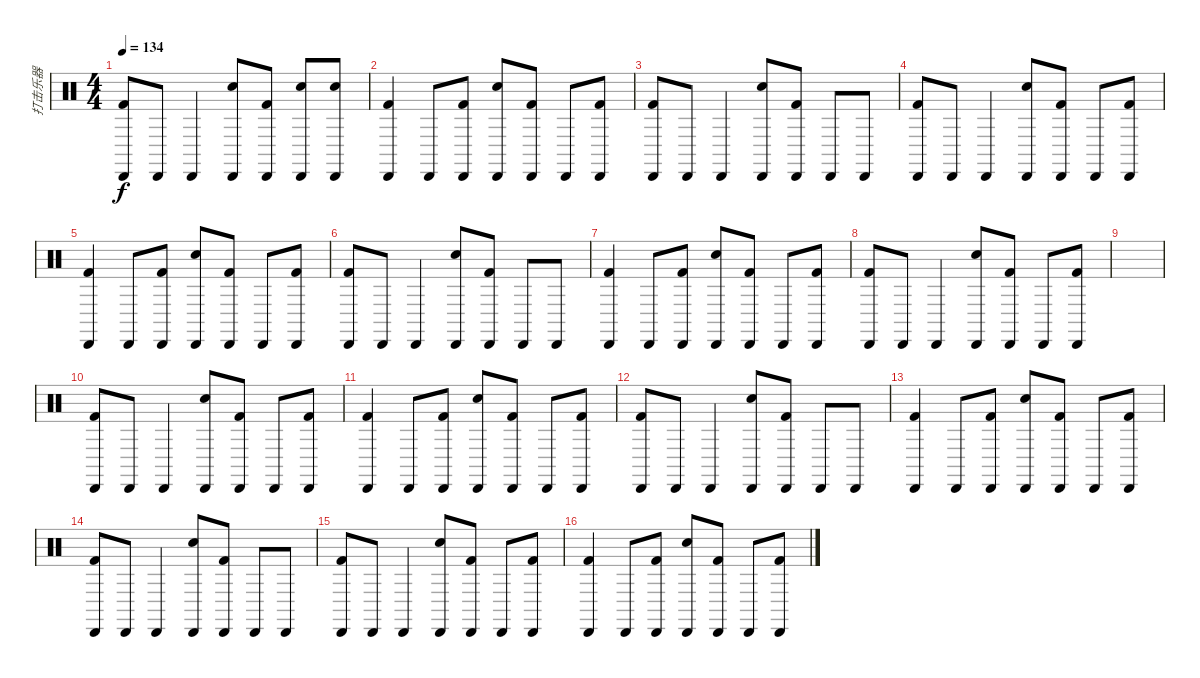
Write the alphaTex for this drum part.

\track ("打击乐器" "打击乐器") {instrument percussion}
\staff {score}
\articulation defaults
\ts (4 4)
\tempo 134
\clef neutral
\ks c
("Cabasa (hit)" "Kick (hit) 2").8{dy f} "Cabasa (hit)".8 "Cabasa (hit)".4 ("Snare (hit) 2" "Cabasa (hit)").8 ("Cabasa (hit)" "Kick (hit) 2").8 ("Snare (hit) 2" "Cabasa (hit)").8 ("Snare (hit) 2" "Cabasa (hit)").8 |
("Cabasa (hit)" "Kick (hit) 2").4 "Cabasa (hit)".8 ("Cabasa (hit)" "Kick (hit) 2").8 ("Snare (hit) 2" "Cabasa (hit)").8 ("Cabasa (hit)" "Kick (hit) 2").8 "Cabasa (hit)".8 ("Cabasa (hit)" "Kick (hit) 2").8 |
("Cabasa (hit)" "Kick (hit) 2").8 "Cabasa (hit)".8 "Cabasa (hit)".4 ("Snare (hit) 2" "Cabasa (hit)").8 ("Cabasa (hit)" "Kick (hit) 2").8 "Cabasa (hit)".8 "Cabasa (hit)".8 |
("Cabasa (hit)" "Kick (hit) 2").8 "Cabasa (hit)".8 "Cabasa (hit)".4 ("Snare (hit) 2" "Cabasa (hit)").8 ("Cabasa (hit)" "Kick (hit) 2").8 "Cabasa (hit)".8 ("Cabasa (hit)" "Kick (hit) 2").8 |
("Cabasa (hit)" "Kick (hit) 2").4 "Cabasa (hit)".8 ("Cabasa (hit)" "Kick (hit) 2").8 ("Snare (hit) 2" "Cabasa (hit)").8 ("Cabasa (hit)" "Kick (hit) 2").8 "Cabasa (hit)".8 ("Cabasa (hit)" "Kick (hit) 2").8 |
("Cabasa (hit)" "Kick (hit) 2").8 "Cabasa (hit)".8 "Cabasa (hit)".4 ("Snare (hit) 2" "Cabasa (hit)").8 ("Cabasa (hit)" "Kick (hit) 2").8 "Cabasa (hit)".8 "Cabasa (hit)".8 |
("Cabasa (hit)" "Kick (hit) 2").4 "Cabasa (hit)".8 ("Cabasa (hit)" "Kick (hit) 2").8 ("Snare (hit) 2" "Cabasa (hit)").8 ("Cabasa (hit)" "Kick (hit) 2").8 "Cabasa (hit)".8 ("Cabasa (hit)" "Kick (hit) 2").8 |
("Cabasa (hit)" "Kick (hit) 2").8 "Cabasa (hit)".8 "Cabasa (hit)".4 ("Snare (hit) 2" "Cabasa (hit)").8 ("Cabasa (hit)" "Kick (hit) 2").8 "Cabasa (hit)".8 ("Cabasa (hit)" "Kick (hit) 2").8 |
|
("Cabasa (hit)" "Kick (hit) 2").8 "Cabasa (hit)".8 "Cabasa (hit)".4 ("Snare (hit) 2" "Cabasa (hit)").8 ("Cabasa (hit)" "Kick (hit) 2").8 "Cabasa (hit)".8 ("Cabasa (hit)" "Kick (hit) 2").8 |
("Cabasa (hit)" "Kick (hit) 2").4 "Cabasa (hit)".8 ("Cabasa (hit)" "Kick (hit) 2").8 ("Snare (hit) 2" "Cabasa (hit)").8 ("Cabasa (hit)" "Kick (hit) 2").8 "Cabasa (hit)".8 ("Cabasa (hit)" "Kick (hit) 2").8 |
("Cabasa (hit)" "Kick (hit) 2").8 "Cabasa (hit)".8 "Cabasa (hit)".4 ("Snare (hit) 2" "Cabasa (hit)").8 ("Cabasa (hit)" "Kick (hit) 2").8 "Cabasa (hit)".8 "Cabasa (hit)".8 |
("Cabasa (hit)" "Kick (hit) 2").4 "Cabasa (hit)".8 ("Cabasa (hit)" "Kick (hit) 2").8 ("Snare (hit) 2" "Cabasa (hit)").8 ("Cabasa (hit)" "Kick (hit) 2").8 "Cabasa (hit)".8 ("Cabasa (hit)" "Kick (hit) 2").8 |
("Cabasa (hit)" "Kick (hit) 2").8 "Cabasa (hit)".8 "Cabasa (hit)".4 ("Snare (hit) 2" "Cabasa (hit)").8 ("Cabasa (hit)" "Kick (hit) 2").8 "Cabasa (hit)".8 "Cabasa (hit)".8 |
("Cabasa (hit)" "Kick (hit) 2").8 "Cabasa (hit)".8 "Cabasa (hit)".4 ("Snare (hit) 2" "Cabasa (hit)").8 ("Cabasa (hit)" "Kick (hit) 2").8 "Cabasa (hit)".8 ("Cabasa (hit)" "Kick (hit) 2").8 |
("Cabasa (hit)" "Kick (hit) 2").4 "Cabasa (hit)".8 ("Cabasa (hit)" "Kick (hit) 2").8 ("Snare (hit) 2" "Cabasa (hit)").8 ("Cabasa (hit)" "Kick (hit) 2").8 "Cabasa (hit)".8 ("Cabasa (hit)" "Kick (hit) 2").8
